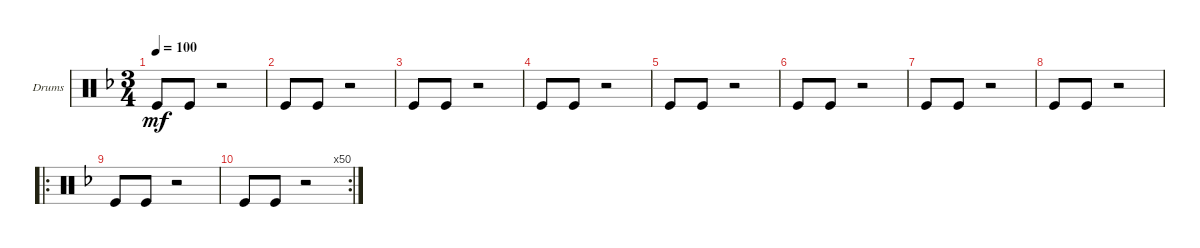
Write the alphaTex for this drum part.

\defaultSystemsLayout 4
\bracketExtendMode groupsimilarinstruments
\firstSystemTrackNameOrientation horizontal
\otherSystemsTrackNameOrientation horizontal
\track ("Drumkit" "Drums") {instrument percussion}
\staff {score}
\articulation defaults
\ts (3 4)
\tempo 100
\clef neutral
\ks dminor "Kick (hit)".8{dy mf} "Kick (hit)".8
r.2 |
"Kick (hit)".8 "Kick (hit)".8 r.2 |
"Kick (hit)".8 "Kick (hit)".8 r.2 |
"Kick (hit)".8 "Kick (hit)".8 r.2 |
"Kick (hit)".8 "Kick (hit)".8 r.2 |
"Kick (hit)".8 "Kick (hit)".8 r.2 |
"Kick (hit)".8 "Kick (hit)".8 r.2 |
"Kick (hit)".8 "Kick (hit)".8 r.2 |
\ro "Kick (hit)".8 "Kick (hit)".8
r.2 |
\rc 50 "Kick (hit)".8 "Kick (hit)".8
r.2
